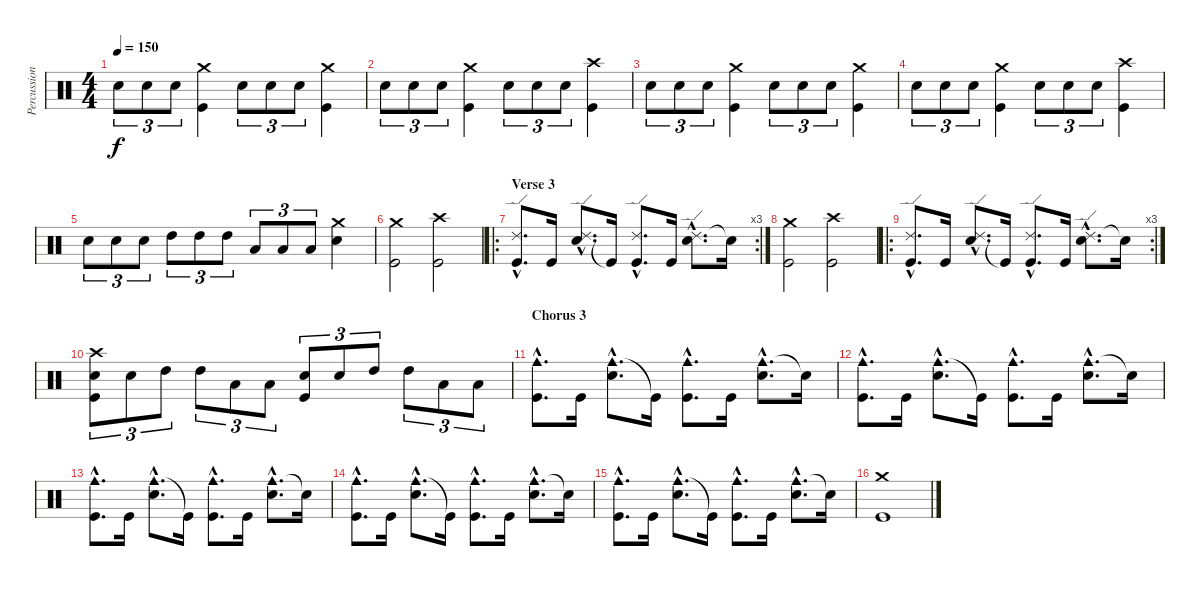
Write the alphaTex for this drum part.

\track ("Percussion" "Percussion") {instrument percussion}
\staff {score}
\articulation defaults
\ts (4 4)
\tempo 150
\clef neutral
\ks c "Snare (hit) 2".8{tu (3 2) dy f} "Snare (hit) 2".8{tu (3 2)} "Snare (hit) 2".8{tu (3 2)}
("Crash medium (hit)" "Kick (hit)").4 "Snare (hit) 2".8{tu (3 2)} "Snare (hit) 2".8{tu (3 2)} "Snare (hit) 2".8{tu (3 2)} ("Crash medium (hit)" "Kick (hit)").4 |
"Snare (hit) 2".8{tu (3 2)} "Snare (hit) 2".8{tu (3 2)} "Snare (hit) 2".8{tu (3 2)} ("Crash medium (hit)" "Kick (hit)").4 "Snare (hit) 2".8{tu (3 2)} "Snare (hit) 2".8{tu (3 2)} "Snare (hit) 2".8{tu (3 2)} ("Crash high (hit)" "Kick (hit)").4 |
"Snare (hit) 2".8{tu (3 2)} "Snare (hit) 2".8{tu (3 2)} "Snare (hit) 2".8{tu (3 2)} ("Crash medium (hit)" "Kick (hit)").4 "Snare (hit) 2".8{tu (3 2)} "Snare (hit) 2".8{tu (3 2)} "Snare (hit) 2".8{tu (3 2)} ("Crash medium (hit)" "Kick (hit)").4 |
"Snare (hit) 2".8{tu (3 2)} "Snare (hit) 2".8{tu (3 2)} "Snare (hit) 2".8{tu (3 2)} ("Crash medium (hit)" "Kick (hit)").4 "Snare (hit) 2".8{tu (3 2)} "Snare (hit) 2".8{tu (3 2)} "Snare (hit) 2".8{tu (3 2)} ("Crash high (hit)" "Kick (hit)").4 |
"Snare (hit) 2".8{tu (3 2)} "Snare (hit) 2".8{tu (3 2)} "Snare (hit) 2".8{tu (3 2)} "High Tom (hit)".8{tu (3 2)} "High Tom (hit)".8{tu (3 2)} "High Tom (hit)".8{tu (3 2)} "Low Floor Tom (hit)".8{tu (3 2)} "Low Floor Tom (hit)".8{tu (3 2)} "Low Floor Tom (hit)".8{tu (3 2)} ("Crash medium (hit)" "Snare (hit) 2").4 |
("Crash medium (hit)" "Kick (hit)").2 ("Crash high (hit)" "Kick (hit)").2 |
\ro
\rc 3
\section ("" "Verse 3")
("Ride (edge) 2"{hac} "Kick (hit)"{hac}).8{d} "Kick (hit)".16 ("Ride (edge) 2"{hac} "Snare (hit) 2"{hac}).8{d} "Kick (hit)"{t}.16 ("Ride (edge) 2"{hac} "Kick (hit)"{hac}).8{d} "Kick (hit)".16 ("Ride (edge) 2"{hac} "Snare (hit) 2"{hac}).8{d} "Snare (hit)"{t}.16 |
("Crash medium (hit)" "Kick (hit)").2 ("Crash high (hit)" "Kick (hit)").2 |
\ro
\rc 3
("Ride (edge) 2"{hac} "Kick (hit)"{hac}).8{d} "Kick (hit)".16 ("Ride (edge) 2"{hac} "Snare (hit) 2"{hac}).8{d} "Kick (hit)"{t}.16 ("Ride (edge) 2"{hac} "Kick (hit)"{hac}).8{d} "Kick (hit)".16 ("Ride (edge) 2"{hac} "Snare (hit) 2"{hac}).8{d} "Snare (hit)"{t}.16 |
("Crash high (hit)" "Snare (hit) 2" "Kick (hit)").8{tu (3 2)} "Snare (hit) 2".8{tu (3 2)} "High Tom (hit)".8{tu (3 2)} "High Tom (hit)".8{tu (3 2)} "Low Floor Tom (hit)".8{tu (3 2)} "Low Floor Tom (hit)".8{tu (3 2)} ("Snare (hit) 2" "Kick (hit)").8{tu (3 2)} "Snare (hit) 2".8{tu (3 2)} "High Tom (hit)".8{tu (3 2)} "High Tom (hit)".8{tu (3 2)} "Low Floor Tom (hit)".8{tu (3 2)} "Low Floor Tom (hit)".8{tu (3 2)} |
\section ("" "Chorus 3")
("Cowbell medium (hit)"{hac} "Kick (hit)"{hac}).8{d} "Kick (hit)".16 ("Cowbell medium (hit)"{hac} "Snare (hit) 2"{hac}).8{d} "Kick (hit)"{t}.16 ("Cowbell medium (hit)"{hac} "Kick (hit)"{hac}).8{d} "Kick (hit)".16 ("Cowbell medium (hit)"{hac} "Snare (hit) 2"{hac}).8{d} "Snare (hit)"{t}.16 |
("Cowbell medium (hit)"{hac} "Kick (hit)"{hac}).8{d} "Kick (hit)".16 ("Cowbell medium (hit)"{hac} "Snare (hit) 2"{hac}).8{d} "Kick (hit)"{t}.16 ("Cowbell medium (hit)"{hac} "Kick (hit)"{hac}).8{d} "Kick (hit)".16 ("Cowbell medium (hit)"{hac} "Snare (hit) 2"{hac}).8{d} "Snare (hit)"{t}.16 |
("Cowbell medium (hit)"{hac} "Kick (hit)"{hac}).8{d} "Kick (hit)".16 ("Cowbell medium (hit)"{hac} "Snare (hit) 2"{hac}).8{d} "Kick (hit)"{t}.16 ("Cowbell medium (hit)"{hac} "Kick (hit)"{hac}).8{d} "Kick (hit)".16 ("Cowbell medium (hit)"{hac} "Snare (hit) 2"{hac}).8{d} "Snare (hit)"{t}.16 |
("Cowbell medium (hit)"{hac} "Kick (hit)"{hac}).8{d} "Kick (hit)".16 ("Cowbell medium (hit)"{hac} "Snare (hit) 2"{hac}).8{d} "Kick (hit)"{t}.16 ("Cowbell medium (hit)"{hac} "Kick (hit)"{hac}).8{d} "Kick (hit)".16 ("Cowbell medium (hit)"{hac} "Snare (hit) 2"{hac}).8{d} "Snare (hit)"{t}.16 |
("Cowbell medium (hit)"{hac} "Kick (hit)"{hac}).8{d} "Kick (hit)".16 ("Cowbell medium (hit)"{hac} "Snare (hit) 2"{hac}).8{d} "Kick (hit)"{t}.16 ("Cowbell medium (hit)"{hac} "Kick (hit)"{hac}).8{d} "Kick (hit)".16 ("Cowbell medium (hit)"{hac} "Snare (hit) 2"{hac}).8{d} "Snare (hit)"{t}.16 |
("Crash medium (hit)" "Kick (hit)").1
